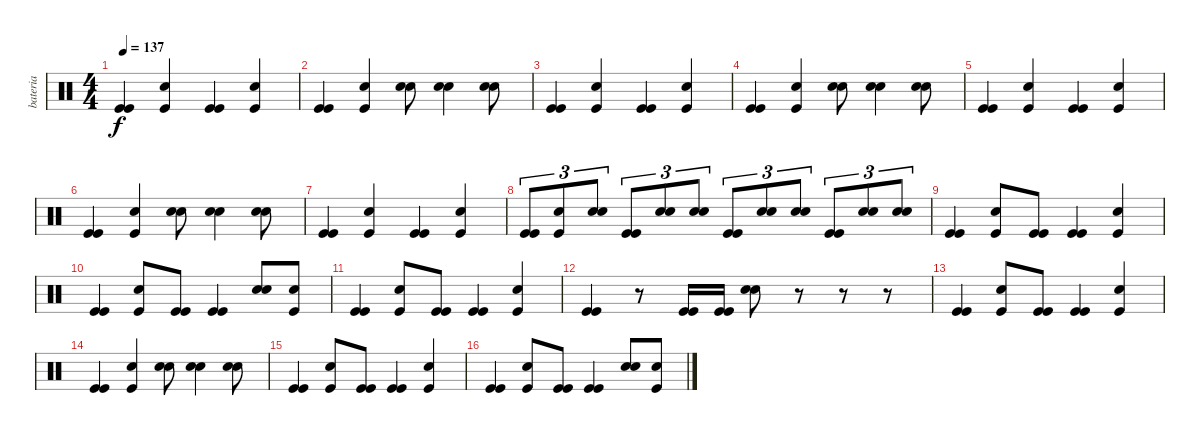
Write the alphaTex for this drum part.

\track ("bateria" "bateria") {instrument percussion}
\staff {score}
\articulation defaults
\ts (4 4)
\tempo 137
\clef neutral
\ks c
("Kick (hit)" "Kick (hit)").4{dy f} ("Kick (hit)" "Snare (hit) 2").4 ("Kick (hit)" "Kick (hit)").4 ("Snare (hit) 2" "Kick (hit)").4 |
("Kick (hit)" "Kick (hit)").4 ("Kick (hit)" "Snare (hit) 2").4 ("Snare (hit) 2" "Snare (hit) 2").8 ("Snare (hit) 2" "Snare (hit) 2").4 ("Snare (hit) 2" "Snare (hit) 2").8 |
("Kick (hit)" "Kick (hit)").4 ("Kick (hit)" "Snare (hit) 2").4 ("Kick (hit)" "Kick (hit)").4 ("Snare (hit) 2" "Kick (hit)").4 |
("Kick (hit)" "Kick (hit)").4 ("Kick (hit)" "Snare (hit) 2").4 ("Snare (hit) 2" "Snare (hit) 2").8 ("Snare (hit) 2" "Snare (hit) 2").4 ("Snare (hit) 2" "Snare (hit) 2").8 |
("Kick (hit)" "Kick (hit)").4 ("Kick (hit)" "Snare (hit) 2").4 ("Kick (hit)" "Kick (hit)").4 ("Snare (hit) 2" "Kick (hit)").4 |
("Kick (hit)" "Kick (hit)").4 ("Kick (hit)" "Snare (hit) 2").4 ("Snare (hit) 2" "Snare (hit) 2").8 ("Snare (hit) 2" "Snare (hit) 2").4 ("Snare (hit) 2" "Snare (hit) 2").8 |
("Kick (hit)" "Kick (hit)").4 ("Kick (hit)" "Snare (hit) 2").4 ("Kick (hit)" "Kick (hit)").4 ("Snare (hit) 2" "Kick (hit)").4 |
("Kick (hit)" "Kick (hit)").8{tu (3 2)} ("Kick (hit)" "Snare (hit) 2").8{tu (3 2)} ("Snare (hit) 2" "Snare (hit) 2").8{tu (3 2)} ("Kick (hit)" "Kick (hit)").8{tu (3 2)} ("Snare (hit) 2" "Snare (hit) 2").8{tu (3 2)} ("Snare (hit) 2" "Snare (hit) 2").8{tu (3 2)} ("Kick (hit)" "Kick (hit)").8{tu (3 2)} ("Snare (hit) 2" "Snare (hit) 2").8{tu (3 2)} ("Snare (hit) 2" "Snare (hit) 2").8{tu (3 2)} ("Kick (hit)" "Kick (hit)").8{tu (3 2)} ("Snare (hit) 2" "Snare (hit) 2").8{tu (3 2)} ("Snare (hit) 2" "Snare (hit) 2").8{tu (3 2)} |
("Kick (hit)" "Kick (hit)").4 ("Snare (hit) 2" "Kick (hit)").8 ("Kick (hit)" "Kick (hit)").8 ("Kick (hit)" "Kick (hit)").4 ("Snare (hit) 2" "Kick (hit)").4 |
("Kick (hit)" "Kick (hit)").4 ("Snare (hit) 2" "Kick (hit)").8 ("Kick (hit)" "Kick (hit)").8 ("Kick (hit)" "Kick (hit)").4 ("Snare (hit) 2" "Snare (hit) 2").8 ("Snare (hit) 2" "Kick (hit)").8 |
("Kick (hit)" "Kick (hit)").4 ("Snare (hit) 2" "Kick (hit)").8 ("Kick (hit)" "Kick (hit)").8 ("Kick (hit)" "Kick (hit)").4 ("Snare (hit) 2" "Kick (hit)").4 |
("Kick (hit)" "Kick (hit)").4 r.8 ("Kick (hit)" "Kick (hit)").16 ("Kick (hit)" "Kick (hit)").16 ("Snare (hit) 2" "Snare (hit) 2").8 r.8 r.8 r.8 |
("Kick (hit)" "Kick (hit)").4 ("Snare (hit) 2" "Kick (hit)").8 ("Kick (hit)" "Kick (hit)").8 ("Kick (hit)" "Kick (hit)").4 ("Snare (hit) 2" "Kick (hit)").4 |
("Kick (hit)" "Kick (hit)").4 ("Kick (hit)" "Snare (hit) 2").4 ("Snare (hit) 2" "Snare (hit) 2").8 ("Snare (hit) 2" "Snare (hit) 2").4 ("Snare (hit) 2" "Snare (hit) 2").8 |
("Kick (hit)" "Kick (hit)").4 ("Snare (hit) 2" "Kick (hit)").8 ("Kick (hit)" "Kick (hit)").8 ("Kick (hit)" "Kick (hit)").4 ("Snare (hit) 2" "Kick (hit)").4 |
("Kick (hit)" "Kick (hit)").4 ("Snare (hit) 2" "Kick (hit)").8 ("Kick (hit)" "Kick (hit)").8 ("Kick (hit)" "Kick (hit)").4 ("Snare (hit) 2" "Snare (hit) 2").8 ("Snare (hit) 2" "Kick (hit)").8
